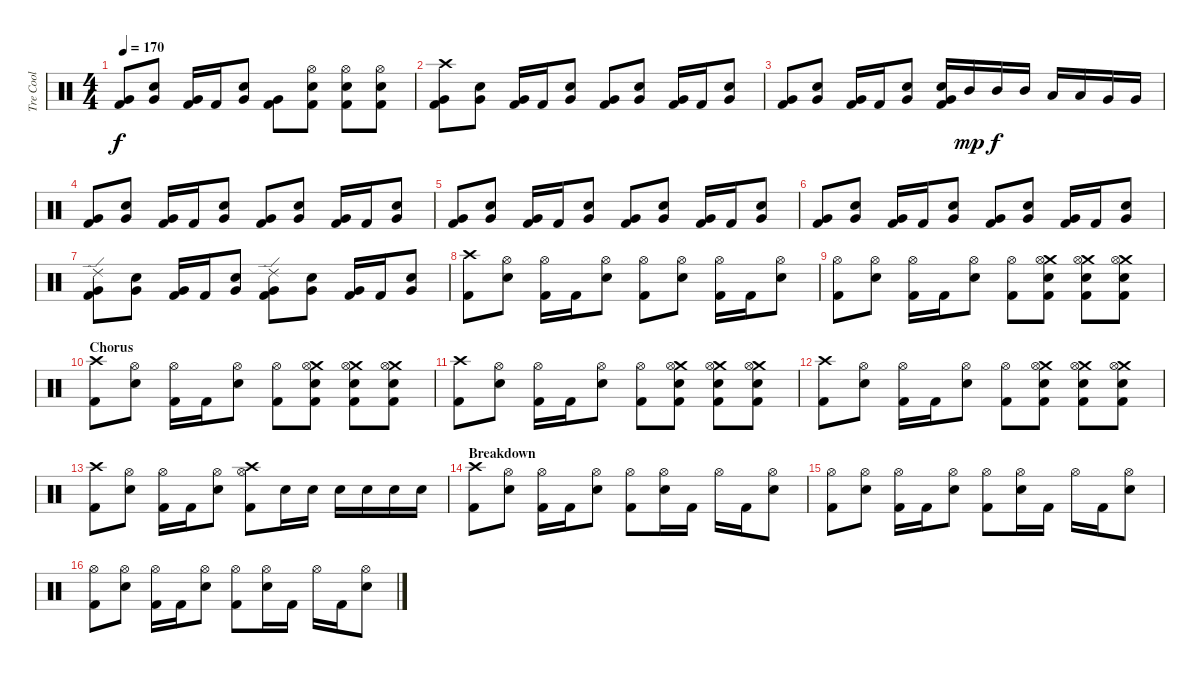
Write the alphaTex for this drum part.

\track ("Tre Cool" "Tre Cool") {instrument percussion}
\staff {score}
\articulation defaults
\ts (4 4)
\tempo 170
\clef neutral
\ks c
("Very Low Tom (hit)" "Kick (hit) 2").8{dy f} ("Electric Snare (hit)" "Very Low Tom (hit)").8 ("Very Low Tom (hit)" "Kick (hit) 2").16 "Kick (hit) 2".16 ("Electric Snare (hit)" "Very Low Tom (hit)").8 ("Very Low Tom (hit)" "Kick (hit) 2").8 ("Hi-Hat (open)" "Electric Snare (hit)" "Kick (hit) 2").8 ("Hi-Hat (open)" "Electric Snare (hit)" "Kick (hit) 2").8 ("Hi-Hat (open)" "Electric Snare (hit)" "Kick (hit) 2").8 |
("Crash high (hit)" "Very Low Tom (hit)" "Kick (hit) 2").8 ("Electric Snare (hit)" "Very Low Tom (hit)").8 ("Very Low Tom (hit)" "Kick (hit) 2").16 "Kick (hit) 2".16 ("Electric Snare (hit)" "Very Low Tom (hit)").8 ("Very Low Tom (hit)" "Kick (hit) 2").8 ("Electric Snare (hit)" "Very Low Tom (hit)").8 ("Very Low Tom (hit)" "Kick (hit) 2").16 "Kick (hit) 2".16 ("Electric Snare (hit)" "Very Low Tom (hit)").8 |
("Very Low Tom (hit)" "Kick (hit) 2").8 ("Electric Snare (hit)" "Very Low Tom (hit)").8 ("Very Low Tom (hit)" "Kick (hit) 2").16 "Kick (hit) 2".16 ("Electric Snare (hit)" "Very Low Tom (hit)").8 ("Electric Snare (hit)" "Very Low Tom (hit)" "Kick (hit) 2").16 "Mid Tom (hit)".16{dy mp} "Mid Tom (hit)".16{dy f} "Mid Tom (hit)".16 "Low Tom (hit)".16 "Low Tom (hit)".16 "Very Low Tom (hit)".16 "Very Low Tom (hit)".16 |
("Very Low Tom (hit)" "Kick (hit) 2").8 ("Electric Snare (hit)" "Very Low Tom (hit)").8 ("Very Low Tom (hit)" "Kick (hit) 2").16 "Kick (hit) 2".16 ("Electric Snare (hit)" "Very Low Tom (hit)").8 ("Very Low Tom (hit)" "Kick (hit) 2").8 ("Electric Snare (hit)" "Very Low Tom (hit)").8 ("Very Low Tom (hit)" "Kick (hit) 2").16 "Kick (hit) 2".16 ("Electric Snare (hit)" "Very Low Tom (hit)").8 |
("Very Low Tom (hit)" "Kick (hit) 2").8 ("Electric Snare (hit)" "Very Low Tom (hit)").8 ("Very Low Tom (hit)" "Kick (hit) 2").16 "Kick (hit) 2".16 ("Electric Snare (hit)" "Very Low Tom (hit)").8 ("Very Low Tom (hit)" "Kick (hit) 2").8 ("Electric Snare (hit)" "Very Low Tom (hit)").8 ("Very Low Tom (hit)" "Kick (hit) 2").16 "Kick (hit) 2".16 ("Electric Snare (hit)" "Very Low Tom (hit)").8 |
("Very Low Tom (hit)" "Kick (hit) 2").8 ("Electric Snare (hit)" "Very Low Tom (hit)").8 ("Very Low Tom (hit)" "Kick (hit) 2").16 "Kick (hit) 2".16 ("Electric Snare (hit)" "Very Low Tom (hit)").8 ("Very Low Tom (hit)" "Kick (hit) 2").8 ("Electric Snare (hit)" "Very Low Tom (hit)").8 ("Very Low Tom (hit)" "Kick (hit) 2").16 "Kick (hit) 2".16 ("Electric Snare (hit)" "Very Low Tom (hit)").8 |
("Ride (edge) 2" "Very Low Tom (hit)" "Kick (hit) 2").8 ("Electric Snare (hit)" "Very Low Tom (hit)").8 ("Very Low Tom (hit)" "Kick (hit) 2").16 "Kick (hit) 2".16 ("Electric Snare (hit)" "Very Low Tom (hit)").8 ("Ride (edge) 2" "Very Low Tom (hit)" "Kick (hit) 2").8 ("Electric Snare (hit)" "Very Low Tom (hit)").8 ("Very Low Tom (hit)" "Kick (hit) 2").16 "Kick (hit) 2".16 ("Electric Snare (hit)" "Very Low Tom (hit)").8 |
("Crash high (hit)" "Kick (hit) 2").8 ("Hi-Hat (open)" "Electric Snare (hit)").8 ("Hi-Hat (open)" "Kick (hit) 2").16 "Kick (hit) 2".16 ("Hi-Hat (open)" "Electric Snare (hit)").8 ("Hi-Hat (open)" "Kick (hit) 2").8 ("Hi-Hat (open)" "Electric Snare (hit)").8 ("Hi-Hat (open)" "Kick (hit) 2").16 "Kick (hit) 2".16 ("Hi-Hat (open)" "Electric Snare (hit)").8 |
("Hi-Hat (open)" "Kick (hit) 2").8 ("Hi-Hat (open)" "Electric Snare (hit)").8 ("Hi-Hat (open)" "Kick (hit) 2").16 "Kick (hit) 2".16 ("Hi-Hat (open)" "Electric Snare (hit)").8 ("Hi-Hat (open)" "Kick (hit) 2").8 ("Crash medium (hit)" "Hi-Hat (open)" "Electric Snare (hit)" "Kick (hit) 2").8 ("Crash medium (hit)" "Hi-Hat (open)" "Electric Snare (hit)" "Kick (hit) 2").8 ("Crash medium (hit)" "Hi-Hat (open)" "Electric Snare (hit)" "Kick (hit) 2").8 |
\section ("" "Chorus")
("Crash high (hit)" "Kick (hit) 2").8 ("Hi-Hat (open)" "Electric Snare (hit)").8 ("Hi-Hat (open)" "Kick (hit) 2").16 "Kick (hit) 2".16 ("Hi-Hat (open)" "Electric Snare (hit)").8 ("Hi-Hat (open)" "Kick (hit) 2").8 ("Crash medium (hit)" "Hi-Hat (open)" "Electric Snare (hit)" "Kick (hit) 2").8 ("Crash medium (hit)" "Hi-Hat (open)" "Electric Snare (hit)" "Kick (hit) 2").8 ("Crash medium (hit)" "Hi-Hat (open)" "Electric Snare (hit)" "Kick (hit) 2").8 |
("Crash high (hit)" "Kick (hit) 2").8 ("Hi-Hat (open)" "Electric Snare (hit)").8 ("Hi-Hat (open)" "Kick (hit) 2").16 "Kick (hit) 2".16 ("Hi-Hat (open)" "Electric Snare (hit)").8 ("Hi-Hat (open)" "Kick (hit) 2").8 ("Crash medium (hit)" "Hi-Hat (open)" "Electric Snare (hit)" "Kick (hit) 2").8 ("Crash medium (hit)" "Hi-Hat (open)" "Electric Snare (hit)" "Kick (hit) 2").8 ("Crash medium (hit)" "Hi-Hat (open)" "Electric Snare (hit)" "Kick (hit) 2").8 |
("Crash high (hit)" "Kick (hit) 2").8 ("Hi-Hat (open)" "Electric Snare (hit)").8 ("Hi-Hat (open)" "Kick (hit) 2").16 "Kick (hit) 2".16 ("Hi-Hat (open)" "Electric Snare (hit)").8 ("Hi-Hat (open)" "Kick (hit) 2").8 ("Crash medium (hit)" "Hi-Hat (open)" "Electric Snare (hit)" "Kick (hit) 2").8 ("Crash medium (hit)" "Hi-Hat (open)" "Electric Snare (hit)" "Kick (hit) 2").8 ("Crash medium (hit)" "Hi-Hat (open)" "Electric Snare (hit)" "Kick (hit) 2").8 |
("Crash high (hit)" "Kick (hit) 2").8 ("Hi-Hat (open)" "Electric Snare (hit)").8 ("Hi-Hat (open)" "Kick (hit) 2").16 "Kick (hit) 2".16 ("Hi-Hat (open)" "Electric Snare (hit)").8 ("Crash high (hit)" "Hi-Hat (open)" "Kick (hit) 2").8 "Electric Snare (hit)".16 "Electric Snare (hit)".16 "Electric Snare (hit)".16 "Electric Snare (hit)".16 "Electric Snare (hit)".16 "Electric Snare (hit)".16 |
\section ("" "Breakdown")
("Crash high (hit)" "Kick (hit) 2").8 ("Hi-Hat (open)" "Electric Snare (hit)").8 ("Hi-Hat (open)" "Kick (hit) 2").16 "Kick (hit) 2".16 ("Hi-Hat (open)" "Electric Snare (hit)").8 ("Hi-Hat (open)" "Kick (hit) 2").8 ("Hi-Hat (open)" "Electric Snare (hit)").16 "Kick (hit) 2".16 "Hi-Hat (open)".16 "Kick (hit) 2".16 ("Hi-Hat (open)" "Electric Snare (hit)").8 |
("Hi-Hat (open)" "Kick (hit) 2").8 ("Hi-Hat (open)" "Electric Snare (hit)").8 ("Hi-Hat (open)" "Kick (hit) 2").16 "Kick (hit) 2".16 ("Hi-Hat (open)" "Electric Snare (hit)").8 ("Hi-Hat (open)" "Kick (hit) 2").8 ("Hi-Hat (open)" "Electric Snare (hit)").16 "Kick (hit) 2".16 "Hi-Hat (open)".16 "Kick (hit) 2".16 ("Hi-Hat (open)" "Electric Snare (hit)").8 |
("Hi-Hat (open)" "Kick (hit) 2").8 ("Hi-Hat (open)" "Electric Snare (hit)").8 ("Hi-Hat (open)" "Kick (hit) 2").16 "Kick (hit) 2".16 ("Hi-Hat (open)" "Electric Snare (hit)").8 ("Hi-Hat (open)" "Kick (hit) 2").8 ("Hi-Hat (open)" "Electric Snare (hit)").16 "Kick (hit) 2".16 "Hi-Hat (open)".16 "Kick (hit) 2".16 ("Hi-Hat (open)" "Electric Snare (hit)").8
